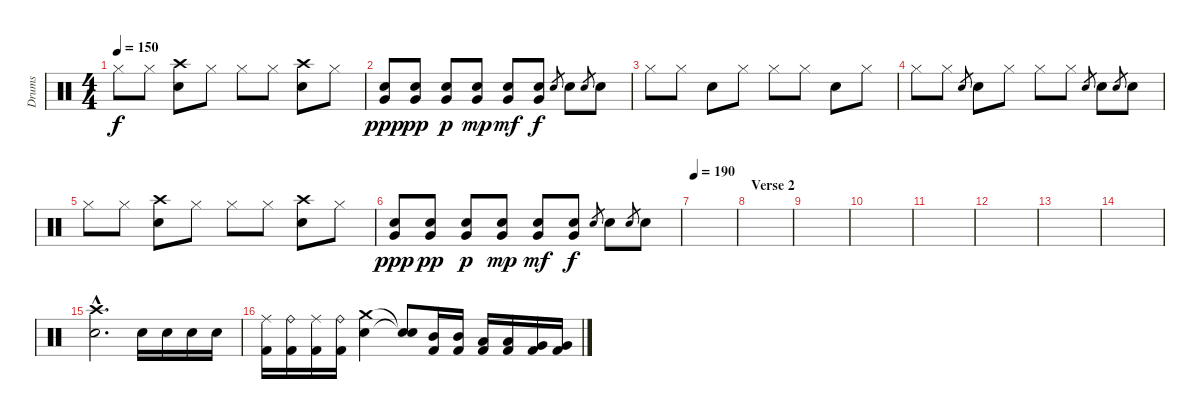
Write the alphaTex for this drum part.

\track ("Drums" "Drums") {instrument percussion}
\staff {score}
\articulation defaults
\ts (4 4)
\tempo 150
\clef neutral
\ks c "Hi-Hat (closed)".8{dy f} "Hi-Hat (closed)".8
("Crash high (hit)" "Electric Snare (hit)").8 "Hi-Hat (closed)".8 "Hi-Hat (closed)".8 "Hi-Hat (closed)".8 ("Crash high (hit)" "Electric Snare (hit)").8 "Hi-Hat (closed)".8 |
("Very Low Tom (hit)" "Electric Snare (hit)").8{dy ppp} ("Very Low Tom (hit)" "Electric Snare (hit)").8{dy pp} ("Very Low Tom (hit)" "Electric Snare (hit)").8{dy p} ("Very Low Tom (hit)" "Electric Snare (hit)").8{dy mp} ("Very Low Tom (hit)" "Electric Snare (hit)").8{dy mf} ("Very Low Tom (hit)" "Electric Snare (hit)").8{dy f} "Electric Snare (hit)".8{gr} "Electric Snare (hit)".8 "Electric Snare (hit)".8{gr} "Electric Snare (hit)".8 |
"Hi-Hat (closed)".8 "Hi-Hat (closed)".8 "Electric Snare (hit)".8 "Hi-Hat (closed)".8 "Hi-Hat (closed)".8 "Hi-Hat (closed)".8 "Electric Snare (hit)".8 "Hi-Hat (closed)".8 |
"Hi-Hat (closed)".8 "Hi-Hat (closed)".8 "Electric Snare (hit)".8{gr} "Electric Snare (hit)".8 "Hi-Hat (closed)".8 "Hi-Hat (closed)".8 "Hi-Hat (closed)".8 "Electric Snare (hit)".8{gr} "Electric Snare (hit)".8 "Electric Snare (hit)".8{gr} "Electric Snare (hit)".8 |
"Hi-Hat (closed)".8 "Hi-Hat (closed)".8 ("Crash high (hit)" "Electric Snare (hit)").8 "Hi-Hat (closed)".8 "Hi-Hat (closed)".8 "Hi-Hat (closed)".8 ("Crash high (hit)" "Electric Snare (hit)").8 "Hi-Hat (closed)".8 |
("Very Low Tom (hit)" "Electric Snare (hit)").8{dy ppp} ("Very Low Tom (hit)" "Electric Snare (hit)").8{dy pp} ("Very Low Tom (hit)" "Electric Snare (hit)").8{dy p} ("Very Low Tom (hit)" "Electric Snare (hit)").8{dy mp} ("Very Low Tom (hit)" "Electric Snare (hit)").8{dy mf} ("Very Low Tom (hit)" "Electric Snare (hit)").8{dy f} "Electric Snare (hit)".8{gr} "Electric Snare (hit)".8 "Electric Snare (hit)".8{gr} "Electric Snare (hit)".8 |
\tempo 190
|
\section ("" "Verse 2")
|
|
|
|
|
|
|
("Electric Snare (hit)"{hac} "Crash high (hit)"{hac}).2{d} "Electric Snare (hit)".16 "Electric Snare (hit)".16 "Electric Snare (hit)".16 "Electric Snare (hit)".16 |
("Ride (middle)" "Kick (hit) 2").16 ("Ride (bell)" "Kick (hit) 2").16 ("Ride (middle)" "Kick (hit) 2").16 ("Ride (bell)" "Kick (hit) 2").16 ("Crash medium (hit)" "Electric Snare (hit)").4 ("Snare (hit)"{t} "Snare (hit)"{t}).8 ("Mid Tom (hit)" "Kick (hit) 2").16 ("Mid Tom (hit)" "Kick (hit) 2").16 ("Low Tom (hit)" "Kick (hit) 2").16 ("Low Tom (hit)" "Kick (hit) 2").16 ("Very Low Tom (hit)" "Kick (hit) 2").16 ("Very Low Tom (hit)" "Kick (hit) 2").16
